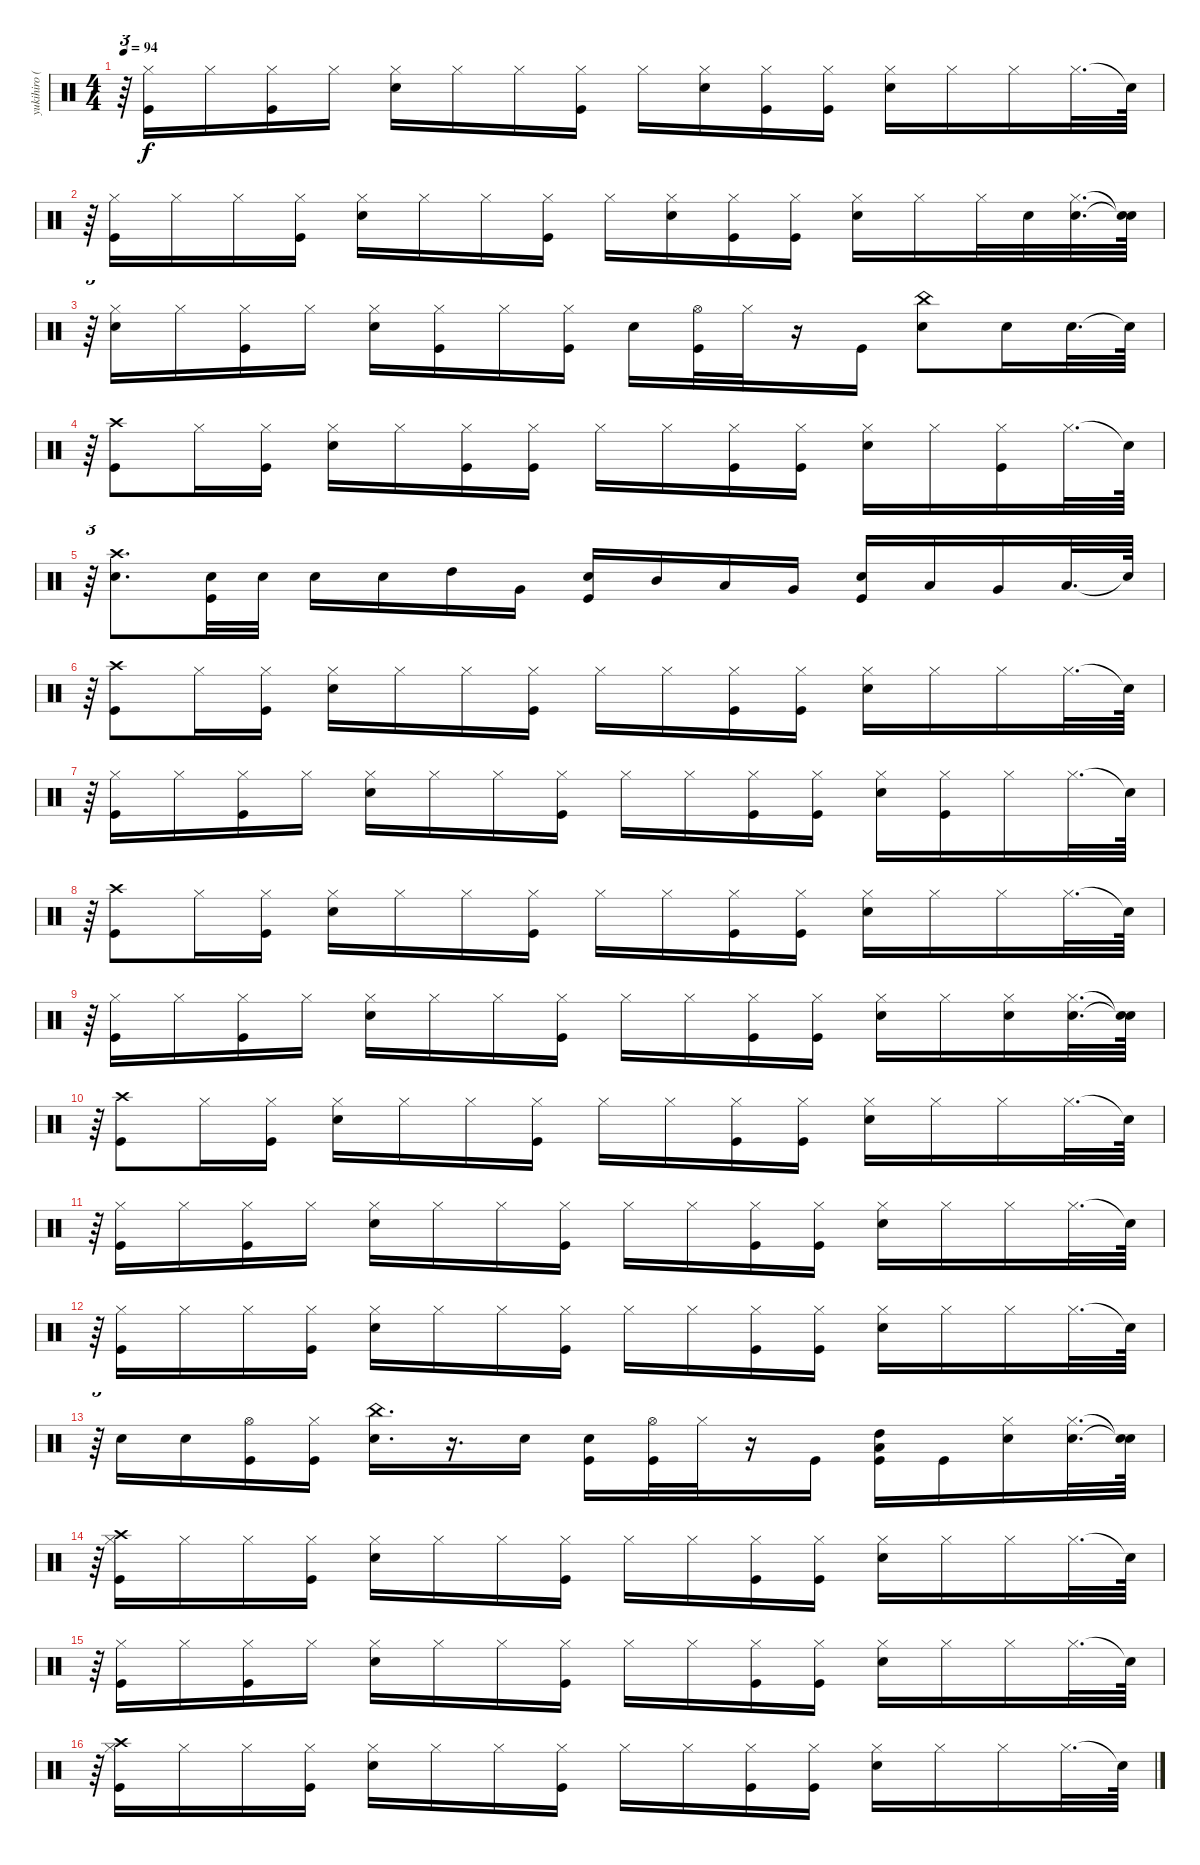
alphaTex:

\track ("yukihiro (Drums)" "yukihiro (") {instrument percussion}
\staff {score}
\articulation defaults
\ts (4 4)
\tempo 94
\clef neutral
\ks c
r.64{tu (3 2) dy f} ("Kick (hit)" "Hi-Hat (closed)").16 "Hi-Hat (closed)".16 ("Kick (hit)" "Hi-Hat (closed)").16 "Hi-Hat (closed)".16 ("Electric Snare (hit)" "Hi-Hat (closed)").16 "Hi-Hat (closed)".16 "Hi-Hat (closed)".16 ("Kick (hit)" "Hi-Hat (closed)").16 "Hi-Hat (closed)".16 ("Electric Snare (hit)" "Hi-Hat (closed)").16 ("Kick (hit)" "Hi-Hat (closed)").16 ("Kick (hit)" "Hi-Hat (closed)").16 ("Electric Snare (hit)" "Hi-Hat (closed)").16 "Hi-Hat (closed)".16 "Hi-Hat (closed)".16 "Hi-Hat (closed)".32{d} "Snare (hit)"{t}.64 |
r.64{tu (3 2)} ("Kick (hit)" "Hi-Hat (closed)").16 "Hi-Hat (closed)".16 "Hi-Hat (closed)".16 ("Kick (hit)" "Hi-Hat (closed)").16 ("Electric Snare (hit)" "Hi-Hat (closed)").16 "Hi-Hat (closed)".16 "Hi-Hat (closed)".16 ("Kick (hit)" "Hi-Hat (closed)").16 "Hi-Hat (closed)".16 ("Electric Snare (hit)" "Hi-Hat (closed)").16 ("Kick (hit)" "Hi-Hat (closed)").16 ("Kick (hit)" "Hi-Hat (closed)").16 ("Electric Snare (hit)" "Hi-Hat (closed)").16 "Hi-Hat (closed)".16 "Hi-Hat (closed)".32 "Electric Snare (hit)".32 ("Electric Snare (hit)" "Hi-Hat (closed)").32{d} ("Snare (hit)"{t} "Snare (hit)"{t}).64 |
r.64{tu (3 2)} ("Electric Snare (hit)" "Hi-Hat (closed)").16 "Hi-Hat (closed)".16 ("Kick (hit)" "Hi-Hat (closed)").16 "Hi-Hat (closed)".16 ("Electric Snare (hit)" "Hi-Hat (closed)").16 ("Kick (hit)" "Hi-Hat (closed)").16 "Hi-Hat (closed)".16 ("Kick (hit)" "Hi-Hat (closed)").16 "Electric Snare (hit)".16 ("Kick (hit)" "Hi-Hat (open)").32 "Hi-Hat (closed)".32 r.16 "Kick (hit)".16 ("Electric Snare (hit)" "China (hit)").8 "Electric Snare (hit)".16 "Electric Snare (hit)".32{d} "Snare (hit)"{t}.64 |
r.64{tu (3 2)} ("Kick (hit)" "Crash high (hit)").8 "Hi-Hat (closed)".16 ("Kick (hit)" "Hi-Hat (closed)").16 ("Electric Snare (hit)" "Hi-Hat (closed)").16 "Hi-Hat (closed)".16 ("Kick (hit)" "Hi-Hat (closed)").16 ("Kick (hit)" "Hi-Hat (closed)").16 "Hi-Hat (closed)".16 "Hi-Hat (closed)".16 ("Kick (hit)" "Hi-Hat (closed)").16 ("Kick (hit)" "Hi-Hat (closed)").16 ("Electric Snare (hit)" "Hi-Hat (closed)").16 "Hi-Hat (closed)".16 ("Kick (hit)" "Hi-Hat (closed)").16 "Hi-Hat (closed)".32{d} "Snare (hit)"{t}.64 |
r.64{tu (3 2)} ("Crash high (hit)" "Electric Snare (hit)").8{d} ("Electric Snare (hit)" "Kick (hit)").32 "Electric Snare (hit)".32 "Electric Snare (hit)".16 "Electric Snare (hit)".16 "High Tom (hit)".16 "Very Low Tom (hit)".16 ("Kick (hit)" "Electric Snare (hit)").16 "Mid Tom (hit)".16 "Low Tom (hit)".16 "Very Low Tom (hit)".16 ("Kick (hit)" "Electric Snare (hit)").16 "Low Tom (hit)".16 "Very Low Tom (hit)".16 "Low Floor Tom (hit)".32{d} "Snare (hit)"{t}.64 |
r.64{tu (3 2)} ("Crash high (hit)" "Kick (hit)").8 "Hi-Hat (closed)".16 ("Kick (hit)" "Hi-Hat (closed)").16 ("Electric Snare (hit)" "Hi-Hat (closed)").16 "Hi-Hat (closed)".16 "Hi-Hat (closed)".16 ("Kick (hit)" "Hi-Hat (closed)").16 "Hi-Hat (closed)".16 "Hi-Hat (closed)".16 ("Kick (hit)" "Hi-Hat (closed)").16 ("Kick (hit)" "Hi-Hat (closed)").16 ("Electric Snare (hit)" "Hi-Hat (closed)").16 "Hi-Hat (closed)".16 "Hi-Hat (closed)".16 "Hi-Hat (closed)".32{d} "Snare (hit)"{t}.64 |
r.64{tu (3 2)} ("Kick (hit)" "Hi-Hat (closed)").16 "Hi-Hat (closed)".16 ("Kick (hit)" "Hi-Hat (closed)").16 "Hi-Hat (closed)".16 ("Electric Snare (hit)" "Hi-Hat (closed)").16 "Hi-Hat (closed)".16 "Hi-Hat (closed)".16 ("Kick (hit)" "Hi-Hat (closed)").16 "Hi-Hat (closed)".16 "Hi-Hat (closed)".16 ("Kick (hit)" "Hi-Hat (closed)").16 ("Kick (hit)" "Hi-Hat (closed)").16 ("Electric Snare (hit)" "Hi-Hat (closed)").16 ("Kick (hit)" "Hi-Hat (closed)").16 "Hi-Hat (closed)".16 "Hi-Hat (closed)".32{d} "Snare (hit)"{t}.64 |
r.64{tu (3 2)} ("Crash high (hit)" "Kick (hit)").8 "Hi-Hat (closed)".16 ("Kick (hit)" "Hi-Hat (closed)").16 ("Electric Snare (hit)" "Hi-Hat (closed)").16 "Hi-Hat (closed)".16 "Hi-Hat (closed)".16 ("Kick (hit)" "Hi-Hat (closed)").16 "Hi-Hat (closed)".16 "Hi-Hat (closed)".16 ("Kick (hit)" "Hi-Hat (closed)").16 ("Kick (hit)" "Hi-Hat (closed)").16 ("Electric Snare (hit)" "Hi-Hat (closed)").16 "Hi-Hat (closed)".16 "Hi-Hat (closed)".16 "Hi-Hat (closed)".32{d} "Snare (hit)"{t}.64 |
r.64{tu (3 2)} ("Kick (hit)" "Hi-Hat (closed)").16 "Hi-Hat (closed)".16 ("Kick (hit)" "Hi-Hat (closed)").16 "Hi-Hat (closed)".16 ("Electric Snare (hit)" "Hi-Hat (closed)").16 "Hi-Hat (closed)".16 "Hi-Hat (closed)".16 ("Kick (hit)" "Hi-Hat (closed)").16 "Hi-Hat (closed)".16 "Hi-Hat (closed)".16 ("Kick (hit)" "Hi-Hat (closed)").16 ("Kick (hit)" "Hi-Hat (closed)").16 ("Electric Snare (hit)" "Hi-Hat (closed)").16 "Hi-Hat (closed)".16 ("Electric Snare (hit)" "Hi-Hat (closed)").16 ("Electric Snare (hit)" "Hi-Hat (closed)").32{d} ("Snare (hit)"{t} "Snare (hit)"{t}).64 |
r.64{tu (3 2)} ("Crash high (hit)" "Kick (hit)").8 "Hi-Hat (closed)".16 ("Kick (hit)" "Hi-Hat (closed)").16 ("Electric Snare (hit)" "Hi-Hat (closed)").16 "Hi-Hat (closed)".16 "Hi-Hat (closed)".16 ("Kick (hit)" "Hi-Hat (closed)").16 "Hi-Hat (closed)".16 "Hi-Hat (closed)".16 ("Kick (hit)" "Hi-Hat (closed)").16 ("Kick (hit)" "Hi-Hat (closed)").16 ("Electric Snare (hit)" "Hi-Hat (closed)").16 "Hi-Hat (closed)".16 "Hi-Hat (closed)".16 "Hi-Hat (closed)".32{d} "Snare (hit)"{t}.64 |
r.64{tu (3 2)} ("Kick (hit)" "Hi-Hat (closed)").16 "Hi-Hat (closed)".16 ("Kick (hit)" "Hi-Hat (closed)").16 "Hi-Hat (closed)".16 ("Electric Snare (hit)" "Hi-Hat (closed)").16 "Hi-Hat (closed)".16 "Hi-Hat (closed)".16 ("Kick (hit)" "Hi-Hat (closed)").16 "Hi-Hat (closed)".16 "Hi-Hat (closed)".16 ("Kick (hit)" "Hi-Hat (closed)").16 ("Kick (hit)" "Hi-Hat (closed)").16 ("Electric Snare (hit)" "Hi-Hat (closed)").16 "Hi-Hat (closed)".16 "Hi-Hat (closed)".16 "Hi-Hat (closed)".32{d} "Snare (hit)"{t}.64 |
r.64{tu (3 2)} ("Kick (hit)" "Hi-Hat (closed)").16 "Hi-Hat (closed)".16 "Hi-Hat (closed)".16 ("Kick (hit)" "Hi-Hat (closed)").16 ("Electric Snare (hit)" "Hi-Hat (closed)").16 "Hi-Hat (closed)".16 "Hi-Hat (closed)".16 ("Kick (hit)" "Hi-Hat (closed)").16 "Hi-Hat (closed)".16 "Hi-Hat (closed)".16 ("Kick (hit)" "Hi-Hat (closed)").16 ("Kick (hit)" "Hi-Hat (closed)").16 ("Electric Snare (hit)" "Hi-Hat (closed)").16 "Hi-Hat (closed)".16 "Hi-Hat (closed)".16 "Hi-Hat (closed)".32{d} "Snare (hit)"{t}.64 |
r.64{tu (3 2)} "Electric Snare (hit)".16 "Electric Snare (hit)".16 ("Kick (hit)" "Hi-Hat (open)").16 ("Kick (hit)" "Hi-Hat (closed)").16 ("Electric Snare (hit)" "China (hit)").16{d} r.16{d} "Electric Snare (hit)".16 ("Kick (hit)" "Electric Snare (hit)").16 ("Kick (hit)" "Hi-Hat (open)").32 "Hi-Hat (closed)".32 r.16 "Kick (hit)".16 ("Kick (hit)" "High Tom (hit)" "Low Tom (hit)").16 "Kick (hit)".16 ("Electric Snare (hit)" "Hi-Hat (closed)").16 ("Electric Snare (hit)" "Hi-Hat (closed)").32{d} ("Snare (hit)"{t} "Snare (hit)"{t}).64 |
r.64{tu (3 2)} ("Crash high (hit)" "Kick (hit)" "Hi-Hat (closed)").16 "Hi-Hat (closed)".16 "Hi-Hat (closed)".16 ("Kick (hit)" "Hi-Hat (closed)").16 ("Electric Snare (hit)" "Hi-Hat (closed)").16 "Hi-Hat (closed)".16 "Hi-Hat (closed)".16 ("Kick (hit)" "Hi-Hat (closed)").16 "Hi-Hat (closed)".16 "Hi-Hat (closed)".16 ("Kick (hit)" "Hi-Hat (closed)").16 ("Kick (hit)" "Hi-Hat (closed)").16 ("Electric Snare (hit)" "Hi-Hat (closed)").16 "Hi-Hat (closed)".16 "Hi-Hat (closed)".16 "Hi-Hat (closed)".32{d} "Snare (hit)"{t}.64 |
r.64{tu (3 2)} ("Kick (hit)" "Hi-Hat (closed)").16 "Hi-Hat (closed)".16 ("Kick (hit)" "Hi-Hat (closed)").16 "Hi-Hat (closed)".16 ("Electric Snare (hit)" "Hi-Hat (closed)").16 "Hi-Hat (closed)".16 "Hi-Hat (closed)".16 ("Kick (hit)" "Hi-Hat (closed)").16 "Hi-Hat (closed)".16 "Hi-Hat (closed)".16 ("Kick (hit)" "Hi-Hat (closed)").16 ("Kick (hit)" "Hi-Hat (closed)").16 ("Electric Snare (hit)" "Hi-Hat (closed)").16 "Hi-Hat (closed)".16 "Hi-Hat (closed)".16 "Hi-Hat (closed)".32{d} "Snare (hit)"{t}.64 |
r.64{tu (3 2)} ("Crash high (hit)" "Kick (hit)" "Hi-Hat (closed)").16 "Hi-Hat (closed)".16 "Hi-Hat (closed)".16 ("Kick (hit)" "Hi-Hat (closed)").16 ("Electric Snare (hit)" "Hi-Hat (closed)").16 "Hi-Hat (closed)".16 "Hi-Hat (closed)".16 ("Kick (hit)" "Hi-Hat (closed)").16 "Hi-Hat (closed)".16 "Hi-Hat (closed)".16 ("Kick (hit)" "Hi-Hat (closed)").16 ("Kick (hit)" "Hi-Hat (closed)").16 ("Electric Snare (hit)" "Hi-Hat (closed)").16 "Hi-Hat (closed)".16 "Hi-Hat (closed)".16 "Hi-Hat (closed)".32{d} "Snare (hit)"{t}.64
